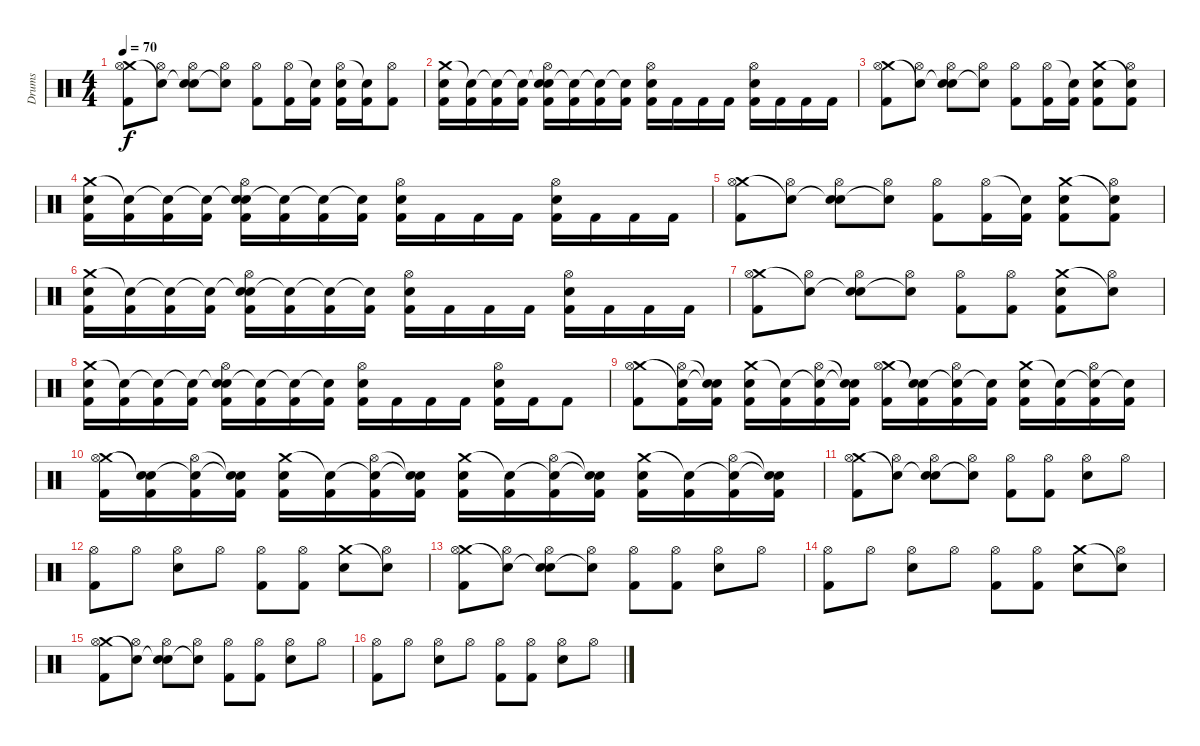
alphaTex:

\track ("Drums" "Drums") {instrument percussion}
\staff {score}
\articulation defaults
\ts (4 4)
\tempo 70
\clef neutral
\ks c
("Crash medium (hit)" "Hi-Hat (open)" "Kick (hit) 2").8{dy f} ("Snare (hit)"{t} "Hi-Hat (open)").8 ("Snare (hit)"{t} "Hi-Hat (open)" "Electric Snare (hit)").8 ("Snare (hit)"{t} "Hi-Hat (open)").8 ("Hi-Hat (open)" "Kick (hit) 2").8 ("Hi-Hat (open)" "Kick (hit) 2").16 ("Snare (hit)"{t} "Kick (hit) 2").16 ("Hi-Hat (open)" "Electric Snare (hit)" "Kick (hit) 2").16 ("Snare (hit)"{t} "Kick (hit) 2").16 ("Hi-Hat (open)" "Kick (hit) 2").8 |
("Crash medium (hit)" "Electric Snare (hit)" "Kick (hit) 2").16 ("Snare (hit)"{t} "Kick (hit) 2").16 ("Snare (hit)"{t} "Kick (hit) 2").16 ("Snare (hit)"{t} "Kick (hit) 2").16 ("Snare (hit)"{t} "Hi-Hat (open)" "Electric Snare (hit)" "Kick (hit) 2").16 ("Snare (hit)"{t} "Kick (hit) 2").16 ("Snare (hit)"{t} "Kick (hit) 2").16 ("Snare (hit)"{t} "Kick (hit) 2").16 ("Hi-Hat (open)" "Electric Snare (hit)" "Kick (hit) 2").16 "Kick (hit) 2".16 "Kick (hit) 2".16 "Kick (hit) 2".16 ("Hi-Hat (open)" "Electric Snare (hit)" "Kick (hit) 2").16 "Kick (hit) 2".16 "Kick (hit) 2".16 "Kick (hit) 2".16 |
("Crash medium (hit)" "Hi-Hat (open)" "Kick (hit) 2").8 ("Snare (hit)"{t} "Hi-Hat (open)").8 ("Snare (hit)"{t} "Hi-Hat (open)" "Electric Snare (hit)").8 ("Snare (hit)"{t} "Hi-Hat (open)").8 ("Hi-Hat (open)" "Kick (hit) 2").8 ("Hi-Hat (open)" "Kick (hit) 2").16 ("Snare (hit)"{t} "Kick (hit) 2").16 ("Crash medium (hit)" "Electric Snare (hit)" "Kick (hit) 2").8 ("Snare (hit)"{t} "Hi-Hat (open)" "Kick (hit) 2").8 |
("Crash medium (hit)" "Electric Snare (hit)" "Kick (hit) 2").16 ("Snare (hit)"{t} "Kick (hit) 2").16 ("Snare (hit)"{t} "Kick (hit) 2").16 ("Snare (hit)"{t} "Kick (hit) 2").16 ("Snare (hit)"{t} "Hi-Hat (open)" "Electric Snare (hit)" "Kick (hit) 2").16 ("Snare (hit)"{t} "Kick (hit) 2").16 ("Snare (hit)"{t} "Kick (hit) 2").16 ("Snare (hit)"{t} "Kick (hit) 2").16 ("Hi-Hat (open)" "Electric Snare (hit)" "Kick (hit) 2").16 "Kick (hit) 2".16 "Kick (hit) 2".16 "Kick (hit) 2".16 ("Hi-Hat (open)" "Electric Snare (hit)" "Kick (hit) 2").16 "Kick (hit) 2".16 "Kick (hit) 2".16 "Kick (hit) 2".16 |
("Crash medium (hit)" "Hi-Hat (open)" "Kick (hit) 2").8 ("Snare (hit)"{t} "Hi-Hat (open)").8 ("Snare (hit)"{t} "Hi-Hat (open)" "Electric Snare (hit)").8 ("Snare (hit)"{t} "Hi-Hat (open)").8 ("Hi-Hat (open)" "Kick (hit) 2").8 ("Hi-Hat (open)" "Kick (hit) 2").16 ("Snare (hit)"{t} "Kick (hit) 2").16 ("Crash medium (hit)" "Electric Snare (hit)" "Kick (hit) 2").8 ("Snare (hit)"{t} "Hi-Hat (open)" "Kick (hit) 2").8 |
("Crash medium (hit)" "Electric Snare (hit)" "Kick (hit) 2").16 ("Snare (hit)"{t} "Kick (hit) 2").16 ("Snare (hit)"{t} "Kick (hit) 2").16 ("Snare (hit)"{t} "Kick (hit) 2").16 ("Snare (hit)"{t} "Hi-Hat (open)" "Electric Snare (hit)" "Kick (hit) 2").16 ("Snare (hit)"{t} "Kick (hit) 2").16 ("Snare (hit)"{t} "Kick (hit) 2").16 ("Snare (hit)"{t} "Kick (hit) 2").16 ("Hi-Hat (open)" "Electric Snare (hit)" "Kick (hit) 2").16 "Kick (hit) 2".16 "Kick (hit) 2".16 "Kick (hit) 2".16 ("Hi-Hat (open)" "Electric Snare (hit)" "Kick (hit) 2").16 "Kick (hit) 2".16 "Kick (hit) 2".16 "Kick (hit) 2".16 |
("Crash medium (hit)" "Hi-Hat (open)" "Kick (hit) 2").8 ("Snare (hit)"{t} "Hi-Hat (open)").8 ("Snare (hit)"{t} "Hi-Hat (open)" "Electric Snare (hit)").8 ("Snare (hit)"{t} "Hi-Hat (open)").8 ("Hi-Hat (open)" "Kick (hit) 2").8 ("Hi-Hat (open)" "Kick (hit) 2").8 ("Crash medium (hit)" "Electric Snare (hit)" "Kick (hit) 2").8 ("Snare (hit)"{t} "Hi-Hat (open)").8 |
("Crash medium (hit)" "Electric Snare (hit)" "Kick (hit) 2").16 ("Snare (hit)"{t} "Kick (hit) 2").16 ("Snare (hit)"{t} "Kick (hit) 2").16 ("Snare (hit)"{t} "Kick (hit) 2").16 ("Snare (hit)"{t} "Hi-Hat (open)" "Electric Snare (hit)" "Kick (hit) 2").16 ("Snare (hit)"{t} "Kick (hit) 2").16 ("Snare (hit)"{t} "Kick (hit) 2").16 ("Snare (hit)"{t} "Kick (hit) 2").16 ("Hi-Hat (open)" "Electric Snare (hit)" "Kick (hit) 2").16 "Kick (hit) 2".16 "Kick (hit) 2".16 "Kick (hit) 2".16 ("Hi-Hat (open)" "Electric Snare (hit)" "Kick (hit) 2").16 "Kick (hit) 2".16 "Kick (hit) 2".8 |
("Crash medium (hit)" "Hi-Hat (open)" "Kick (hit) 2").8 ("Snare (hit)"{t} "Hi-Hat (open)" "Kick (hit) 2").16 ("Snare (hit)"{t} "Snare (hit)"{t} "Kick (hit) 2").16 ("Crash medium (hit)" "Electric Snare (hit)" "Kick (hit) 2").16 ("Snare (hit)"{t} "Kick (hit) 2").16 ("Snare (hit)"{t} "Hi-Hat (open)" "Kick (hit) 2").16 ("Snare (hit)"{t} "Snare (hit)"{t} "Kick (hit) 2").16 ("Crash medium (hit)" "Hi-Hat (open)" "Kick (hit) 2").16 ("Snare (hit)"{t} "Snare (hit)"{t} "Kick (hit) 2").16 ("Snare (hit)"{t} "Hi-Hat (open)" "Kick (hit) 2").16 ("Snare (hit)"{t} "Kick (hit) 2").16 ("Crash medium (hit)" "Electric Snare (hit)" "Kick (hit) 2").16 ("Snare (hit)"{t} "Kick (hit) 2").16 ("Snare (hit)"{t} "Hi-Hat (open)" "Kick (hit) 2").16 ("Snare (hit)"{t} "Kick (hit) 2").16 |
("Crash medium (hit)" "Hi-Hat (open)" "Kick (hit) 2").16 ("Snare (hit)"{t} "Snare (hit)"{t} "Kick (hit) 2").16 ("Snare (hit)"{t} "Hi-Hat (open)" "Kick (hit) 2").16 ("Snare (hit)"{t} "Snare (hit)"{t} "Kick (hit) 2").16 ("Crash medium (hit)" "Electric Snare (hit)" "Kick (hit) 2").16 ("Snare (hit)"{t} "Kick (hit) 2").16 ("Snare (hit)"{t} "Hi-Hat (open)" "Kick (hit) 2").16 ("Snare (hit)"{t} "Snare (hit)"{t} "Kick (hit) 2").16 ("Crash medium (hit)" "Electric Snare (hit)" "Kick (hit) 2").16 ("Snare (hit)"{t} "Kick (hit) 2").16 ("Snare (hit)"{t} "Hi-Hat (open)" "Kick (hit) 2").16 ("Snare (hit)"{t} "Snare (hit)"{t} "Kick (hit) 2").16 ("Crash medium (hit)" "Electric Snare (hit)" "Kick (hit) 2").16 ("Snare (hit)"{t} "Kick (hit) 2").16 ("Snare (hit)"{t} "Hi-Hat (open)" "Kick (hit) 2").16 ("Snare (hit)"{t} "Snare (hit)"{t} "Kick (hit) 2").16 |
("Crash medium (hit)" "Hi-Hat (open)" "Kick (hit) 2").8 ("Snare (hit)"{t} "Hi-Hat (open)").8 ("Snare (hit)"{t} "Hi-Hat (open)" "Electric Snare (hit)").8 ("Snare (hit)"{t} "Hi-Hat (open)").8 ("Hi-Hat (open)" "Kick (hit) 2").8 ("Hi-Hat (open)" "Kick (hit) 2").8 ("Hi-Hat (open)" "Electric Snare (hit)").8 "Hi-Hat (open)".8 |
("Hi-Hat (open)" "Kick (hit) 2").8 "Hi-Hat (open)".8 ("Hi-Hat (open)" "Electric Snare (hit)").8 "Hi-Hat (open)".8 ("Hi-Hat (open)" "Kick (hit) 2").8 ("Hi-Hat (open)" "Kick (hit) 2").8 ("Crash medium (hit)" "Electric Snare (hit)").8 ("Snare (hit)"{t} "Hi-Hat (open)").8 |
("Crash medium (hit)" "Hi-Hat (open)" "Kick (hit) 2").8 ("Snare (hit)"{t} "Hi-Hat (open)").8 ("Snare (hit)"{t} "Hi-Hat (open)" "Electric Snare (hit)").8 ("Snare (hit)"{t} "Hi-Hat (open)").8 ("Hi-Hat (open)" "Kick (hit) 2").8 ("Hi-Hat (open)" "Kick (hit) 2").8 ("Hi-Hat (open)" "Electric Snare (hit)").8 "Hi-Hat (open)".8 |
("Hi-Hat (open)" "Kick (hit) 2").8 "Hi-Hat (open)".8 ("Hi-Hat (open)" "Electric Snare (hit)").8 "Hi-Hat (open)".8 ("Hi-Hat (open)" "Kick (hit) 2").8 ("Hi-Hat (open)" "Kick (hit) 2").8 ("Crash medium (hit)" "Electric Snare (hit)").8 ("Snare (hit)"{t} "Hi-Hat (open)").8 |
("Crash medium (hit)" "Hi-Hat (open)" "Kick (hit) 2").8 ("Snare (hit)"{t} "Hi-Hat (open)").8 ("Snare (hit)"{t} "Hi-Hat (open)" "Electric Snare (hit)").8 ("Snare (hit)"{t} "Hi-Hat (open)").8 ("Hi-Hat (open)" "Kick (hit) 2").8 ("Hi-Hat (open)" "Kick (hit) 2").8 ("Hi-Hat (open)" "Electric Snare (hit)").8 "Hi-Hat (open)".8 |
("Hi-Hat (open)" "Kick (hit) 2").8 "Hi-Hat (open)".8 ("Hi-Hat (open)" "Electric Snare (hit)").8 "Hi-Hat (open)".8 ("Hi-Hat (open)" "Kick (hit) 2").8 ("Hi-Hat (open)" "Kick (hit) 2").8 ("Hi-Hat (open)" "Electric Snare (hit)").8 "Hi-Hat (open)".8
